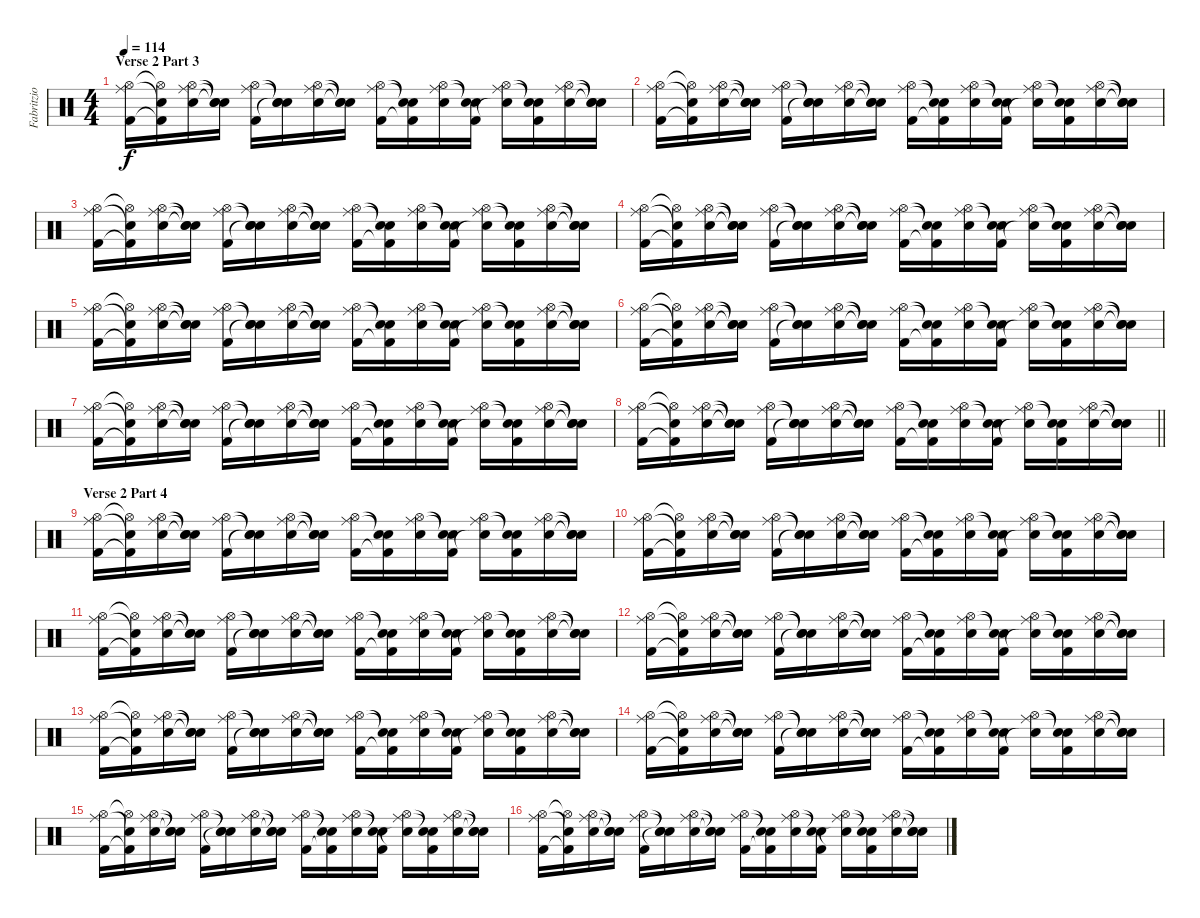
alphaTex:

\track ("Fabritzio Moretti" "Fabritzio ") {instrument percussion}
\staff {score}
\articulation defaults
\ts (4 4)
\section ("" "Verse 2 Part 3")
\tempo 114
\clef neutral
\ks c
("Hi-Hat (open)" "Ride (middle)" "Kick (hit) 2").16{dy f} ("Hi-Hat (open)"{t} "Snare (hit)"{t} "Kick (hit) 2"{t}).16 ("Hi-Hat (open)" "Ride (middle)" "Snare (hit) 2").16 ("Snare (hit)"{t} "Snare (hit)"{t} "Snare (hit)"{t}).16 ("Hi-Hat (open)" "Ride (middle)" "Kick (hit) 2").16 ("Snare (hit)"{t} "Snare (hit)"{t} "Snare (hit)"{t}).16 ("Hi-Hat (open)" "Ride (middle)" "Snare (hit) 2").16 ("Snare (hit)"{t} "Snare (hit)"{t} "Snare (hit)"{t}).16 ("Hi-Hat (open)" "Ride (middle)" "Kick (hit) 2").16 ("Snare (hit)"{t} "Snare (hit)"{t} "Kick (hit) 2"{t}).16 ("Hi-Hat (open)" "Ride (middle)" "Snare (hit) 2").16 ("Snare (hit)"{t} "Snare (hit)"{t} "Kick (hit) 2").16 ("Hi-Hat (open)" "Ride (middle)" "Snare (hit)"{t}).16 ("Snare (hit)"{t} "Snare (hit)"{t} "Kick (hit) 2").16 ("Hi-Hat (open)" "Ride (middle)" "Snare (hit) 2").16 ("Snare (hit)"{t} "Snare (hit)"{t} "Snare (hit)"{t}).16 |
("Hi-Hat (open)" "Ride (middle)" "Kick (hit) 2").16 ("Hi-Hat (open)"{t} "Snare (hit)"{t} "Kick (hit) 2"{t}).16 ("Hi-Hat (open)" "Ride (middle)" "Snare (hit) 2").16 ("Snare (hit)"{t} "Snare (hit)"{t} "Snare (hit)"{t}).16 ("Hi-Hat (open)" "Ride (middle)" "Kick (hit) 2").16 ("Snare (hit)"{t} "Snare (hit)"{t} "Snare (hit)"{t}).16 ("Hi-Hat (open)" "Ride (middle)" "Snare (hit) 2").16 ("Snare (hit)"{t} "Snare (hit)"{t} "Snare (hit)"{t}).16 ("Hi-Hat (open)" "Ride (middle)" "Kick (hit) 2").16 ("Snare (hit)"{t} "Snare (hit)"{t} "Kick (hit) 2"{t}).16 ("Hi-Hat (open)" "Ride (middle)" "Snare (hit) 2").16 ("Snare (hit)"{t} "Snare (hit)"{t} "Kick (hit) 2").16 ("Hi-Hat (open)" "Ride (middle)" "Snare (hit)"{t}).16 ("Snare (hit)"{t} "Snare (hit)"{t} "Kick (hit) 2").16 ("Hi-Hat (open)" "Ride (middle)" "Snare (hit) 2").16 ("Snare (hit)"{t} "Snare (hit)"{t} "Snare (hit)"{t}).16 |
("Hi-Hat (open)" "Ride (middle)" "Kick (hit) 2").16 ("Hi-Hat (open)"{t} "Snare (hit)"{t} "Kick (hit) 2"{t}).16 ("Hi-Hat (open)" "Ride (middle)" "Snare (hit) 2").16 ("Snare (hit)"{t} "Snare (hit)"{t} "Snare (hit)"{t}).16 ("Hi-Hat (open)" "Ride (middle)" "Kick (hit) 2").16 ("Snare (hit)"{t} "Snare (hit)"{t} "Snare (hit)"{t}).16 ("Hi-Hat (open)" "Ride (middle)" "Snare (hit) 2").16 ("Snare (hit)"{t} "Snare (hit)"{t} "Snare (hit)"{t}).16 ("Hi-Hat (open)" "Ride (middle)" "Kick (hit) 2").16 ("Snare (hit)"{t} "Snare (hit)"{t} "Kick (hit) 2"{t}).16 ("Hi-Hat (open)" "Ride (middle)" "Snare (hit) 2").16 ("Snare (hit)"{t} "Snare (hit)"{t} "Kick (hit) 2").16 ("Hi-Hat (open)" "Ride (middle)" "Snare (hit)"{t}).16 ("Snare (hit)"{t} "Snare (hit)"{t} "Kick (hit) 2").16 ("Hi-Hat (open)" "Ride (middle)" "Snare (hit) 2").16 ("Snare (hit)"{t} "Snare (hit)"{t} "Snare (hit)"{t}).16 |
("Hi-Hat (open)" "Ride (middle)" "Kick (hit) 2").16 ("Hi-Hat (open)"{t} "Snare (hit)"{t} "Kick (hit) 2"{t}).16 ("Hi-Hat (open)" "Ride (middle)" "Snare (hit) 2").16 ("Snare (hit)"{t} "Snare (hit)"{t} "Snare (hit)"{t}).16 ("Hi-Hat (open)" "Ride (middle)" "Kick (hit) 2").16 ("Snare (hit)"{t} "Snare (hit)"{t} "Snare (hit)"{t}).16 ("Hi-Hat (open)" "Ride (middle)" "Snare (hit) 2").16 ("Snare (hit)"{t} "Snare (hit)"{t} "Snare (hit)"{t}).16 ("Hi-Hat (open)" "Ride (middle)" "Kick (hit) 2").16 ("Snare (hit)"{t} "Snare (hit)"{t} "Kick (hit) 2"{t}).16 ("Hi-Hat (open)" "Ride (middle)" "Snare (hit) 2").16 ("Snare (hit)"{t} "Snare (hit)"{t} "Kick (hit) 2").16 ("Hi-Hat (open)" "Ride (middle)" "Snare (hit)"{t}).16 ("Snare (hit)"{t} "Snare (hit)"{t} "Kick (hit) 2").16 ("Hi-Hat (open)" "Ride (middle)" "Snare (hit) 2").16 ("Snare (hit)"{t} "Snare (hit)"{t} "Snare (hit)"{t}).16 |
("Hi-Hat (open)" "Ride (middle)" "Kick (hit) 2").16 ("Hi-Hat (open)"{t} "Snare (hit)"{t} "Kick (hit) 2"{t}).16 ("Hi-Hat (open)" "Ride (middle)" "Snare (hit) 2").16 ("Snare (hit)"{t} "Snare (hit)"{t} "Snare (hit)"{t}).16 ("Hi-Hat (open)" "Ride (middle)" "Kick (hit) 2").16 ("Snare (hit)"{t} "Snare (hit)"{t} "Snare (hit)"{t}).16 ("Hi-Hat (open)" "Ride (middle)" "Snare (hit) 2").16 ("Snare (hit)"{t} "Snare (hit)"{t} "Snare (hit)"{t}).16 ("Hi-Hat (open)" "Ride (middle)" "Kick (hit) 2").16 ("Snare (hit)"{t} "Snare (hit)"{t} "Kick (hit) 2"{t}).16 ("Hi-Hat (open)" "Ride (middle)" "Snare (hit) 2").16 ("Snare (hit)"{t} "Snare (hit)"{t} "Kick (hit) 2").16 ("Hi-Hat (open)" "Ride (middle)" "Snare (hit)"{t}).16 ("Snare (hit)"{t} "Snare (hit)"{t} "Kick (hit) 2").16 ("Hi-Hat (open)" "Ride (middle)" "Snare (hit) 2").16 ("Snare (hit)"{t} "Snare (hit)"{t} "Snare (hit)"{t}).16 |
("Hi-Hat (open)" "Ride (middle)" "Kick (hit) 2").16 ("Hi-Hat (open)"{t} "Snare (hit)"{t} "Kick (hit) 2"{t}).16 ("Hi-Hat (open)" "Ride (middle)" "Snare (hit) 2").16 ("Snare (hit)"{t} "Snare (hit)"{t} "Snare (hit)"{t}).16 ("Hi-Hat (open)" "Ride (middle)" "Kick (hit) 2").16 ("Snare (hit)"{t} "Snare (hit)"{t} "Snare (hit)"{t}).16 ("Hi-Hat (open)" "Ride (middle)" "Snare (hit) 2").16 ("Snare (hit)"{t} "Snare (hit)"{t} "Snare (hit)"{t}).16 ("Hi-Hat (open)" "Ride (middle)" "Kick (hit) 2").16 ("Snare (hit)"{t} "Snare (hit)"{t} "Kick (hit) 2"{t}).16 ("Hi-Hat (open)" "Ride (middle)" "Snare (hit) 2").16 ("Snare (hit)"{t} "Snare (hit)"{t} "Kick (hit) 2").16 ("Hi-Hat (open)" "Ride (middle)" "Snare (hit)"{t}).16 ("Snare (hit)"{t} "Snare (hit)"{t} "Kick (hit) 2").16 ("Hi-Hat (open)" "Ride (middle)" "Snare (hit) 2").16 ("Snare (hit)"{t} "Snare (hit)"{t} "Snare (hit)"{t}).16 |
("Hi-Hat (open)" "Ride (middle)" "Kick (hit) 2").16 ("Hi-Hat (open)"{t} "Snare (hit)"{t} "Kick (hit) 2"{t}).16 ("Hi-Hat (open)" "Ride (middle)" "Snare (hit) 2").16 ("Snare (hit)"{t} "Snare (hit)"{t} "Snare (hit)"{t}).16 ("Hi-Hat (open)" "Ride (middle)" "Kick (hit) 2").16 ("Snare (hit)"{t} "Snare (hit)"{t} "Snare (hit)"{t}).16 ("Hi-Hat (open)" "Ride (middle)" "Snare (hit) 2").16 ("Snare (hit)"{t} "Snare (hit)"{t} "Snare (hit)"{t}).16 ("Hi-Hat (open)" "Ride (middle)" "Kick (hit) 2").16 ("Snare (hit)"{t} "Snare (hit)"{t} "Kick (hit) 2"{t}).16 ("Hi-Hat (open)" "Ride (middle)" "Snare (hit) 2").16 ("Snare (hit)"{t} "Snare (hit)"{t} "Kick (hit) 2").16 ("Hi-Hat (open)" "Ride (middle)" "Snare (hit)"{t}).16 ("Snare (hit)"{t} "Snare (hit)"{t} "Kick (hit) 2").16 ("Hi-Hat (open)" "Ride (middle)" "Snare (hit) 2").16 ("Snare (hit)"{t} "Snare (hit)"{t} "Snare (hit)"{t}).16 |
\barLineRight lightlight
("Hi-Hat (open)" "Ride (middle)" "Kick (hit) 2").16 ("Hi-Hat (open)"{t} "Snare (hit)"{t} "Kick (hit) 2"{t}).16 ("Hi-Hat (open)" "Ride (middle)" "Snare (hit) 2").16 ("Snare (hit)"{t} "Snare (hit)"{t} "Snare (hit)"{t}).16 ("Hi-Hat (open)" "Ride (middle)" "Kick (hit) 2").16 ("Snare (hit)"{t} "Snare (hit)"{t} "Snare (hit)"{t}).16 ("Hi-Hat (open)" "Ride (middle)" "Snare (hit) 2").16 ("Snare (hit)"{t} "Snare (hit)"{t} "Snare (hit)"{t}).16 ("Hi-Hat (open)" "Ride (middle)" "Kick (hit) 2").16 ("Snare (hit)"{t} "Snare (hit)"{t} "Kick (hit) 2"{t}).16 ("Hi-Hat (open)" "Ride (middle)" "Snare (hit) 2").16 ("Snare (hit)"{t} "Snare (hit)"{t} "Kick (hit) 2").16 ("Hi-Hat (open)" "Ride (middle)" "Snare (hit)"{t}).16 ("Snare (hit)"{t} "Snare (hit)"{t} "Kick (hit) 2").16 ("Hi-Hat (open)" "Ride (middle)" "Snare (hit) 2").16 ("Snare (hit)"{t} "Snare (hit)"{t} "Snare (hit)"{t}).16 |
\section ("" "Verse 2 Part 4")
("Hi-Hat (open)" "Ride (middle)" "Kick (hit) 2").16 ("Hi-Hat (open)"{t} "Snare (hit)"{t} "Kick (hit) 2"{t}).16 ("Hi-Hat (open)" "Ride (middle)" "Snare (hit) 2").16 ("Snare (hit)"{t} "Snare (hit)"{t} "Snare (hit)"{t}).16 ("Hi-Hat (open)" "Ride (middle)" "Kick (hit) 2").16 ("Snare (hit)"{t} "Snare (hit)"{t} "Snare (hit)"{t}).16 ("Hi-Hat (open)" "Ride (middle)" "Snare (hit) 2").16 ("Snare (hit)"{t} "Snare (hit)"{t} "Snare (hit)"{t}).16 ("Hi-Hat (open)" "Ride (middle)" "Kick (hit) 2").16 ("Snare (hit)"{t} "Snare (hit)"{t} "Kick (hit) 2"{t}).16 ("Hi-Hat (open)" "Ride (middle)" "Snare (hit) 2").16 ("Snare (hit)"{t} "Snare (hit)"{t} "Kick (hit) 2").16 ("Hi-Hat (open)" "Ride (middle)" "Snare (hit)"{t}).16 ("Snare (hit)"{t} "Snare (hit)"{t} "Kick (hit) 2").16 ("Hi-Hat (open)" "Ride (middle)" "Snare (hit) 2").16 ("Snare (hit)"{t} "Snare (hit)"{t} "Snare (hit)"{t}).16 |
("Hi-Hat (open)" "Ride (middle)" "Kick (hit) 2").16 ("Hi-Hat (open)"{t} "Snare (hit)"{t} "Kick (hit) 2"{t}).16 ("Hi-Hat (open)" "Ride (middle)" "Snare (hit) 2").16 ("Snare (hit)"{t} "Snare (hit)"{t} "Snare (hit)"{t}).16 ("Hi-Hat (open)" "Ride (middle)" "Kick (hit) 2").16 ("Snare (hit)"{t} "Snare (hit)"{t} "Snare (hit)"{t}).16 ("Hi-Hat (open)" "Ride (middle)" "Snare (hit) 2").16 ("Snare (hit)"{t} "Snare (hit)"{t} "Snare (hit)"{t}).16 ("Hi-Hat (open)" "Ride (middle)" "Kick (hit) 2").16 ("Snare (hit)"{t} "Snare (hit)"{t} "Kick (hit) 2"{t}).16 ("Hi-Hat (open)" "Ride (middle)" "Snare (hit) 2").16 ("Snare (hit)"{t} "Snare (hit)"{t} "Kick (hit) 2").16 ("Hi-Hat (open)" "Ride (middle)" "Snare (hit)"{t}).16 ("Snare (hit)"{t} "Snare (hit)"{t} "Kick (hit) 2").16 ("Hi-Hat (open)" "Ride (middle)" "Snare (hit) 2").16 ("Snare (hit)"{t} "Snare (hit)"{t} "Snare (hit)"{t}).16 |
("Hi-Hat (open)" "Ride (middle)" "Kick (hit) 2").16 ("Hi-Hat (open)"{t} "Snare (hit)"{t} "Kick (hit) 2"{t}).16 ("Hi-Hat (open)" "Ride (middle)" "Snare (hit) 2").16 ("Snare (hit)"{t} "Snare (hit)"{t} "Snare (hit)"{t}).16 ("Hi-Hat (open)" "Ride (middle)" "Kick (hit) 2").16 ("Snare (hit)"{t} "Snare (hit)"{t} "Snare (hit)"{t}).16 ("Hi-Hat (open)" "Ride (middle)" "Snare (hit) 2").16 ("Snare (hit)"{t} "Snare (hit)"{t} "Snare (hit)"{t}).16 ("Hi-Hat (open)" "Ride (middle)" "Kick (hit) 2").16 ("Snare (hit)"{t} "Snare (hit)"{t} "Kick (hit) 2"{t}).16 ("Hi-Hat (open)" "Ride (middle)" "Snare (hit) 2").16 ("Snare (hit)"{t} "Snare (hit)"{t} "Kick (hit) 2").16 ("Hi-Hat (open)" "Ride (middle)" "Snare (hit)"{t}).16 ("Snare (hit)"{t} "Snare (hit)"{t} "Kick (hit) 2").16 ("Hi-Hat (open)" "Ride (middle)" "Snare (hit) 2").16 ("Snare (hit)"{t} "Snare (hit)"{t} "Snare (hit)"{t}).16 |
("Hi-Hat (open)" "Ride (middle)" "Kick (hit) 2").16 ("Hi-Hat (open)"{t} "Snare (hit)"{t} "Kick (hit) 2"{t}).16 ("Hi-Hat (open)" "Ride (middle)" "Snare (hit) 2").16 ("Snare (hit)"{t} "Snare (hit)"{t} "Snare (hit)"{t}).16 ("Hi-Hat (open)" "Ride (middle)" "Kick (hit) 2").16 ("Snare (hit)"{t} "Snare (hit)"{t} "Snare (hit)"{t}).16 ("Hi-Hat (open)" "Ride (middle)" "Snare (hit) 2").16 ("Snare (hit)"{t} "Snare (hit)"{t} "Snare (hit)"{t}).16 ("Hi-Hat (open)" "Ride (middle)" "Kick (hit) 2").16 ("Snare (hit)"{t} "Snare (hit)"{t} "Kick (hit) 2"{t}).16 ("Hi-Hat (open)" "Ride (middle)" "Snare (hit) 2").16 ("Snare (hit)"{t} "Snare (hit)"{t} "Kick (hit) 2").16 ("Hi-Hat (open)" "Ride (middle)" "Snare (hit)"{t}).16 ("Snare (hit)"{t} "Snare (hit)"{t} "Kick (hit) 2").16 ("Hi-Hat (open)" "Ride (middle)" "Snare (hit) 2").16 ("Snare (hit)"{t} "Snare (hit)"{t} "Snare (hit)"{t}).16 |
("Hi-Hat (open)" "Ride (middle)" "Kick (hit) 2").16 ("Hi-Hat (open)"{t} "Snare (hit)"{t} "Kick (hit) 2"{t}).16 ("Hi-Hat (open)" "Ride (middle)" "Snare (hit) 2").16 ("Snare (hit)"{t} "Snare (hit)"{t} "Snare (hit)"{t}).16 ("Hi-Hat (open)" "Ride (middle)" "Kick (hit) 2").16 ("Snare (hit)"{t} "Snare (hit)"{t} "Snare (hit)"{t}).16 ("Hi-Hat (open)" "Ride (middle)" "Snare (hit) 2").16 ("Snare (hit)"{t} "Snare (hit)"{t} "Snare (hit)"{t}).16 ("Hi-Hat (open)" "Ride (middle)" "Kick (hit) 2").16 ("Snare (hit)"{t} "Snare (hit)"{t} "Kick (hit) 2"{t}).16 ("Hi-Hat (open)" "Ride (middle)" "Snare (hit) 2").16 ("Snare (hit)"{t} "Snare (hit)"{t} "Kick (hit) 2").16 ("Hi-Hat (open)" "Ride (middle)" "Snare (hit)"{t}).16 ("Snare (hit)"{t} "Snare (hit)"{t} "Kick (hit) 2").16 ("Hi-Hat (open)" "Ride (middle)" "Snare (hit) 2").16 ("Snare (hit)"{t} "Snare (hit)"{t} "Snare (hit)"{t}).16 |
("Hi-Hat (open)" "Ride (middle)" "Kick (hit) 2").16 ("Hi-Hat (open)"{t} "Snare (hit)"{t} "Kick (hit) 2"{t}).16 ("Hi-Hat (open)" "Ride (middle)" "Snare (hit) 2").16 ("Snare (hit)"{t} "Snare (hit)"{t} "Snare (hit)"{t}).16 ("Hi-Hat (open)" "Ride (middle)" "Kick (hit) 2").16 ("Snare (hit)"{t} "Snare (hit)"{t} "Snare (hit)"{t}).16 ("Hi-Hat (open)" "Ride (middle)" "Snare (hit) 2").16 ("Snare (hit)"{t} "Snare (hit)"{t} "Snare (hit)"{t}).16 ("Hi-Hat (open)" "Ride (middle)" "Kick (hit) 2").16 ("Snare (hit)"{t} "Snare (hit)"{t} "Kick (hit) 2"{t}).16 ("Hi-Hat (open)" "Ride (middle)" "Snare (hit) 2").16 ("Snare (hit)"{t} "Snare (hit)"{t} "Kick (hit) 2").16 ("Hi-Hat (open)" "Ride (middle)" "Snare (hit)"{t}).16 ("Snare (hit)"{t} "Snare (hit)"{t} "Kick (hit) 2").16 ("Hi-Hat (open)" "Ride (middle)" "Snare (hit) 2").16 ("Snare (hit)"{t} "Snare (hit)"{t} "Snare (hit)"{t}).16 |
("Hi-Hat (open)" "Ride (middle)" "Kick (hit) 2").16 ("Hi-Hat (open)"{t} "Snare (hit)"{t} "Kick (hit) 2"{t}).16 ("Hi-Hat (open)" "Ride (middle)" "Snare (hit) 2").16 ("Snare (hit)"{t} "Snare (hit)"{t} "Snare (hit)"{t}).16 ("Hi-Hat (open)" "Ride (middle)" "Kick (hit) 2").16 ("Snare (hit)"{t} "Snare (hit)"{t} "Snare (hit)"{t}).16 ("Hi-Hat (open)" "Ride (middle)" "Snare (hit) 2").16 ("Snare (hit)"{t} "Snare (hit)"{t} "Snare (hit)"{t}).16 ("Hi-Hat (open)" "Ride (middle)" "Kick (hit) 2").16 ("Snare (hit)"{t} "Snare (hit)"{t} "Kick (hit) 2"{t}).16 ("Hi-Hat (open)" "Ride (middle)" "Snare (hit) 2").16 ("Snare (hit)"{t} "Snare (hit)"{t} "Kick (hit) 2").16 ("Hi-Hat (open)" "Ride (middle)" "Snare (hit)"{t}).16 ("Snare (hit)"{t} "Snare (hit)"{t} "Kick (hit) 2").16 ("Hi-Hat (open)" "Ride (middle)" "Snare (hit) 2").16 ("Snare (hit)"{t} "Snare (hit)"{t} "Snare (hit)"{t}).16 |
("Hi-Hat (open)" "Ride (middle)" "Kick (hit) 2").16 ("Hi-Hat (open)"{t} "Snare (hit)"{t} "Kick (hit) 2"{t}).16 ("Hi-Hat (open)" "Ride (middle)" "Snare (hit) 2").16 ("Snare (hit)"{t} "Snare (hit)"{t} "Snare (hit)"{t}).16 ("Hi-Hat (open)" "Ride (middle)" "Kick (hit) 2").16 ("Snare (hit)"{t} "Snare (hit)"{t} "Snare (hit)"{t}).16 ("Hi-Hat (open)" "Ride (middle)" "Snare (hit) 2").16 ("Snare (hit)"{t} "Snare (hit)"{t} "Snare (hit)"{t}).16 ("Hi-Hat (open)" "Ride (middle)" "Kick (hit) 2").16 ("Snare (hit)"{t} "Snare (hit)"{t} "Kick (hit) 2"{t}).16 ("Hi-Hat (open)" "Ride (middle)" "Snare (hit) 2").16 ("Snare (hit)"{t} "Snare (hit)"{t} "Kick (hit) 2").16 ("Hi-Hat (open)" "Ride (middle)" "Snare (hit)"{t}).16 ("Snare (hit)"{t} "Snare (hit)"{t} "Kick (hit) 2").16 ("Hi-Hat (open)" "Ride (middle)" "Snare (hit) 2").16 ("Snare (hit)"{t} "Snare (hit)"{t} "Snare (hit)"{t}).16
